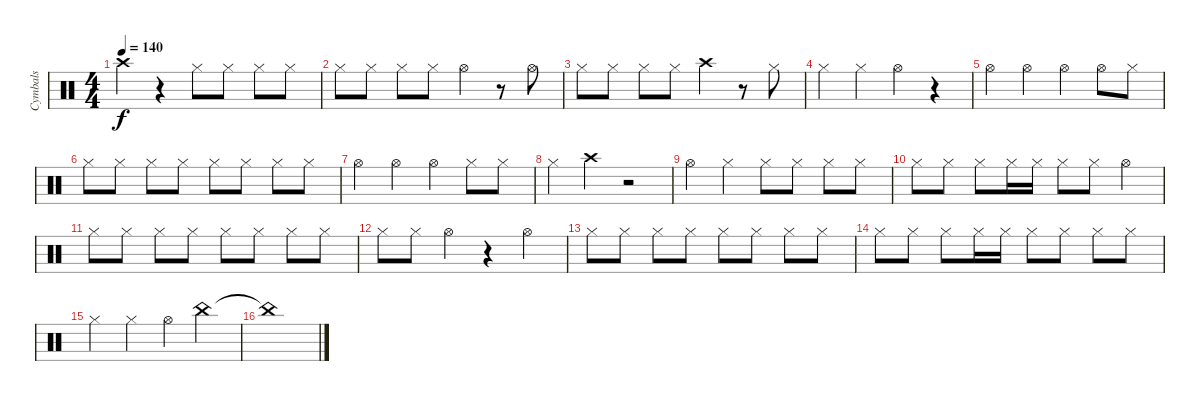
\track ("Cymbals" "Cymbals") {instrument percussion}
\staff {score}
\articulation defaults
\ts (4 4)
\tempo 140
\clef neutral
\ks c "Crash high (hit)".4{dy f}
r.4 "Hi-Hat (closed)".8 "Hi-Hat (closed)".8 "Hi-Hat (closed)".8 "Hi-Hat (closed)".8 |
"Hi-Hat (closed)".8 "Hi-Hat (closed)".8 "Hi-Hat (closed)".8 "Hi-Hat (closed)".8 "Hi-Hat (open)".4 r.8 "Hi-Hat (open)".8 |
"Hi-Hat (closed)".8 "Hi-Hat (closed)".8 "Hi-Hat (closed)".8 "Hi-Hat (closed)".8 "Crash high (hit)".4 r.8 "Hi-Hat (closed)".8 |
"Hi-Hat (closed)".4 "Hi-Hat (closed)".4 "Hi-Hat (open)".4 r.4 |
"Hi-Hat (open)".4 "Hi-Hat (open)".4 "Hi-Hat (open)".4 "Hi-Hat (open)".8 "Hi-Hat (closed)".8 |
"Hi-Hat (closed)".8 "Hi-Hat (closed)".8 "Hi-Hat (closed)".8 "Hi-Hat (closed)".8 "Hi-Hat (closed)".8 "Hi-Hat (closed)".8 "Hi-Hat (closed)".8 "Hi-Hat (closed)".8 |
"Hi-Hat (open)".4 "Hi-Hat (open)".4 "Hi-Hat (open)".4 "Hi-Hat (closed)".8 "Hi-Hat (closed)".8 |
"Hi-Hat (closed)".4 "Crash high (hit)".4 r.2 |
"Hi-Hat (open)".4 "Hi-Hat (closed)".4 "Hi-Hat (closed)".8 "Hi-Hat (closed)".8 "Hi-Hat (closed)".8 "Hi-Hat (closed)".8 |
"Hi-Hat (closed)".8 "Hi-Hat (closed)".8 "Hi-Hat (closed)".8 "Hi-Hat (closed)".16 "Hi-Hat (closed)".16 "Hi-Hat (closed)".8 "Hi-Hat (closed)".8 "Hi-Hat (open)".4 |
"Hi-Hat (closed)".8 "Hi-Hat (closed)".8 "Hi-Hat (closed)".8 "Hi-Hat (closed)".8 "Hi-Hat (closed)".8 "Hi-Hat (closed)".8 "Hi-Hat (closed)".8 "Hi-Hat (closed)".8 |
"Hi-Hat (closed)".8 "Hi-Hat (closed)".8 "Hi-Hat (open)".4 r.4 "Hi-Hat (open)".4 |
"Hi-Hat (closed)".8 "Hi-Hat (closed)".8 "Hi-Hat (closed)".8 "Hi-Hat (closed)".8 "Hi-Hat (closed)".8 "Hi-Hat (closed)".8 "Hi-Hat (closed)".8 "Hi-Hat (closed)".8 |
"Hi-Hat (closed)".8 "Hi-Hat (closed)".8 "Hi-Hat (closed)".8 "Hi-Hat (closed)".16 "Hi-Hat (closed)".16 "Hi-Hat (closed)".8 "Hi-Hat (closed)".8 "Hi-Hat (closed)".8 "Hi-Hat (closed)".8 |
"Hi-Hat (closed)".4 "Hi-Hat (closed)".4 "Hi-Hat (open)".4 "China (hit)".4 |
"China (hit)"{t}.1
